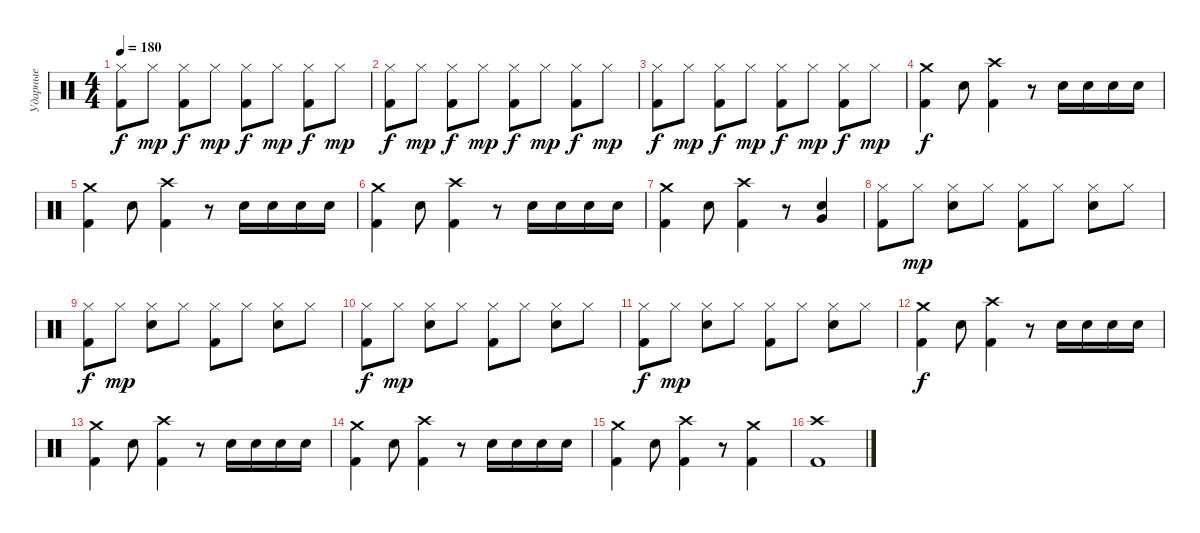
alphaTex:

\track ("Ударные" "Ударные") {instrument percussion}
\staff {score}
\articulation defaults
\ts (4 4)
\tempo 180
\clef neutral
\ks c
("Hi-Hat (closed)" "Kick (hit) 2").8{dy f} "Hi-Hat (closed)".8{dy mp} ("Hi-Hat (closed)" "Kick (hit) 2").8{dy f} "Hi-Hat (closed)".8{dy mp} ("Hi-Hat (closed)" "Kick (hit) 2").8{dy f} "Hi-Hat (closed)".8{dy mp} ("Hi-Hat (closed)" "Kick (hit) 2").8{dy f} "Hi-Hat (closed)".8{dy mp} |
("Hi-Hat (closed)" "Kick (hit) 2").8{dy f} "Hi-Hat (closed)".8{dy mp} ("Hi-Hat (closed)" "Kick (hit) 2").8{dy f} "Hi-Hat (closed)".8{dy mp} ("Hi-Hat (closed)" "Kick (hit) 2").8{dy f} "Hi-Hat (closed)".8{dy mp} ("Hi-Hat (closed)" "Kick (hit) 2").8{dy f} "Hi-Hat (closed)".8{dy mp} |
("Hi-Hat (closed)" "Kick (hit) 2").8{dy f} "Hi-Hat (closed)".8{dy mp} ("Hi-Hat (closed)" "Kick (hit) 2").8{dy f} "Hi-Hat (closed)".8{dy mp} ("Hi-Hat (closed)" "Kick (hit) 2").8{dy f} "Hi-Hat (closed)".8{dy mp} ("Hi-Hat (closed)" "Kick (hit) 2").8{dy f} "Hi-Hat (closed)".8{dy mp} |
("Crash medium (hit)" "Kick (hit) 2").4{dy f} "Electric Snare (hit)".8 ("Crash high (hit)" "Kick (hit) 2").4 r.8 "Electric Snare (hit)".16 "Electric Snare (hit)".16 "Electric Snare (hit)".16 "Electric Snare (hit)".16 |
("Crash medium (hit)" "Kick (hit) 2").4 "Electric Snare (hit)".8 ("Crash high (hit)" "Kick (hit) 2").4 r.8 "Electric Snare (hit)".16 "Electric Snare (hit)".16 "Electric Snare (hit)".16 "Electric Snare (hit)".16 |
("Crash medium (hit)" "Kick (hit) 2").4 "Electric Snare (hit)".8 ("Crash high (hit)" "Kick (hit) 2").4 r.8 "Electric Snare (hit)".16 "Electric Snare (hit)".16 "Electric Snare (hit)".16 "Electric Snare (hit)".16 |
("Crash medium (hit)" "Kick (hit) 2").4 "Electric Snare (hit)".8 ("Crash high (hit)" "Kick (hit) 2").4 r.8 ("Very Low Tom (hit)" "Electric Snare (hit)").4 |
("Hi-Hat (closed)" "Kick (hit) 2").8 "Hi-Hat (closed)".8{dy mp} ("Hi-Hat (closed)" "Electric Snare (hit)").8 "Hi-Hat (closed)".8 ("Hi-Hat (closed)" "Kick (hit) 2").8 "Hi-Hat (closed)".8 ("Hi-Hat (closed)" "Electric Snare (hit)").8 "Hi-Hat (closed)".8 |
("Hi-Hat (closed)" "Kick (hit) 2").8{dy f} "Hi-Hat (closed)".8{dy mp} ("Hi-Hat (closed)" "Electric Snare (hit)").8 "Hi-Hat (closed)".8 ("Hi-Hat (closed)" "Kick (hit) 2").8 "Hi-Hat (closed)".8 ("Hi-Hat (closed)" "Electric Snare (hit)").8 "Hi-Hat (closed)".8 |
("Hi-Hat (closed)" "Kick (hit) 2").8{dy f} "Hi-Hat (closed)".8{dy mp} ("Hi-Hat (closed)" "Electric Snare (hit)").8 "Hi-Hat (closed)".8 ("Hi-Hat (closed)" "Kick (hit) 2").8 "Hi-Hat (closed)".8 ("Hi-Hat (closed)" "Electric Snare (hit)").8 "Hi-Hat (closed)".8 |
("Hi-Hat (closed)" "Kick (hit) 2").8{dy f} "Hi-Hat (closed)".8{dy mp} ("Hi-Hat (closed)" "Electric Snare (hit)").8 "Hi-Hat (closed)".8 ("Hi-Hat (closed)" "Kick (hit) 2").8 "Hi-Hat (closed)".8 ("Hi-Hat (closed)" "Electric Snare (hit)").8 "Hi-Hat (closed)".8 |
("Crash medium (hit)" "Kick (hit) 2").4{dy f} "Electric Snare (hit)".8 ("Crash high (hit)" "Kick (hit) 2").4 r.8 "Electric Snare (hit)".16 "Electric Snare (hit)".16 "Electric Snare (hit)".16 "Electric Snare (hit)".16 |
("Crash medium (hit)" "Kick (hit) 2").4 "Electric Snare (hit)".8 ("Crash high (hit)" "Kick (hit) 2").4 r.8 "Electric Snare (hit)".16 "Electric Snare (hit)".16 "Electric Snare (hit)".16 "Electric Snare (hit)".16 |
("Crash medium (hit)" "Kick (hit) 2").4 "Electric Snare (hit)".8 ("Crash high (hit)" "Kick (hit) 2").4 r.8 "Electric Snare (hit)".16 "Electric Snare (hit)".16 "Electric Snare (hit)".16 "Electric Snare (hit)".16 |
("Crash medium (hit)" "Kick (hit) 2").4 "Electric Snare (hit)".8 ("Crash high (hit)" "Kick (hit) 2").4 r.8 ("Crash medium (hit)" "Kick (hit) 2").4 |
("Crash high (hit)" "Kick (hit) 2").1
